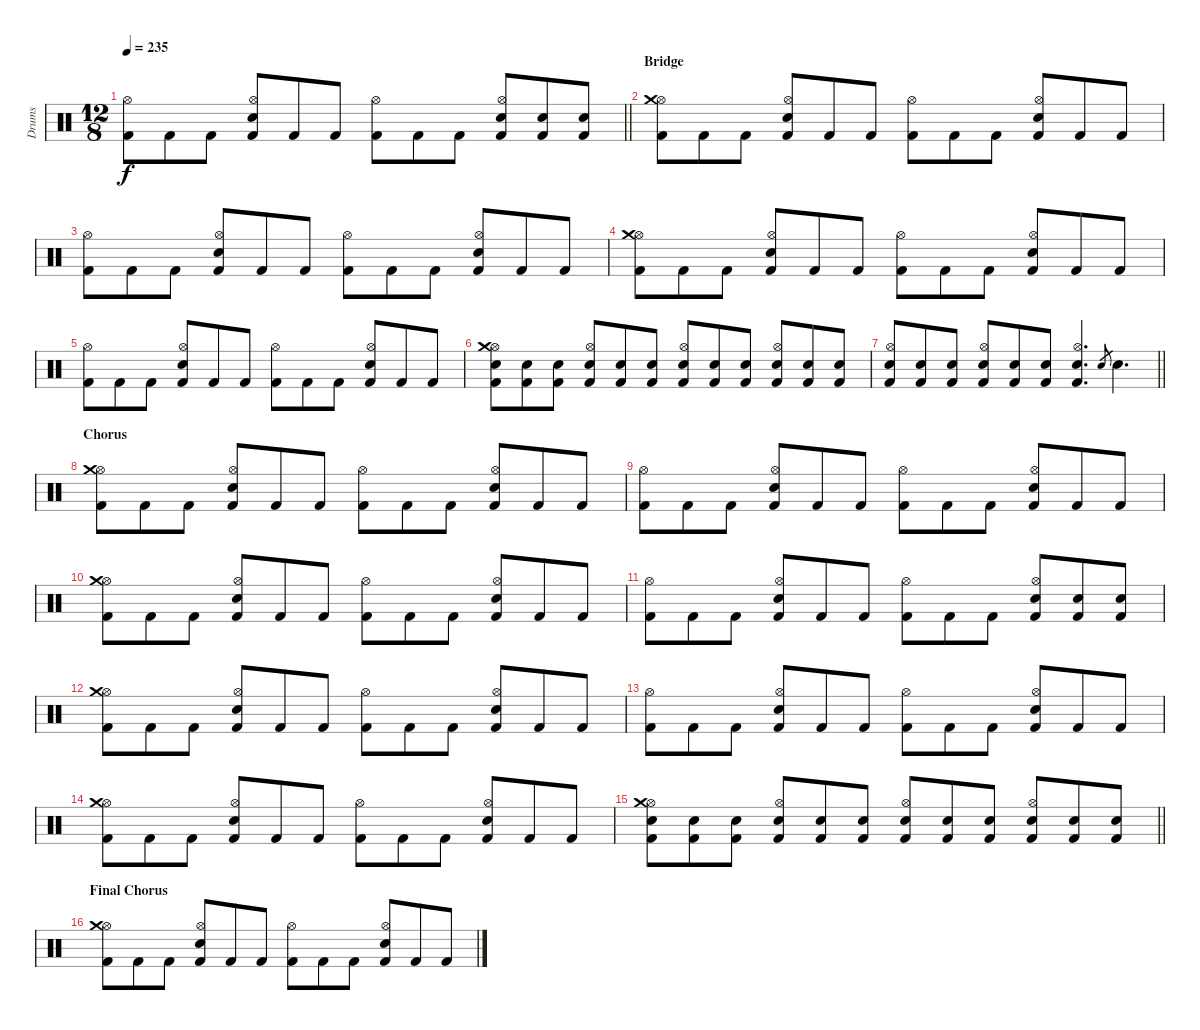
\track ("Drums" "Drums") {instrument percussion}
\staff {score}
\articulation defaults
\ts (12 8)
\tempo 235
\clef neutral
\barLineRight lightlight
\ks c
("Kick (hit) 2" "Hi-Hat (open)").8{dy f} "Kick (hit) 2".8 "Kick (hit) 2".8 ("Hi-Hat (open)" "Kick (hit) 2" "Snare (hit) 2").8 "Kick (hit) 2".8 "Kick (hit) 2".8 ("Kick (hit) 2" "Hi-Hat (open)").8 "Kick (hit) 2".8 "Kick (hit) 2".8 ("Kick (hit) 2" "Hi-Hat (open)" "Snare (hit) 2").8 ("Kick (hit) 2" "Snare (hit) 2").8 ("Kick (hit) 2" "Snare (hit) 2").8 |
\section ("" "Bridge")
("Kick (hit) 2" "Hi-Hat (open)" "Crash medium (hit)").8 "Kick (hit) 2".8 "Kick (hit) 2".8 ("Snare (hit) 2" "Hi-Hat (open)" "Kick (hit) 2").8 "Kick (hit) 2".8 "Kick (hit) 2".8 ("Hi-Hat (open)" "Kick (hit) 2").8 "Kick (hit) 2".8 "Kick (hit) 2".8 ("Kick (hit) 2" "Snare (hit) 2" "Hi-Hat (open)").8 "Kick (hit) 2".8 "Kick (hit) 2".8 |
("Hi-Hat (open)" "Kick (hit) 2").8 "Kick (hit) 2".8 "Kick (hit) 2".8 ("Snare (hit) 2" "Kick (hit) 2" "Hi-Hat (open)").8 "Kick (hit) 2".8 "Kick (hit) 2".8 ("Hi-Hat (open)" "Kick (hit) 2").8 "Kick (hit) 2".8 "Kick (hit) 2".8 ("Hi-Hat (open)" "Kick (hit) 2" "Snare (hit) 2").8 "Kick (hit) 2".8 "Kick (hit) 2".8 |
("Hi-Hat (open)" "Kick (hit) 2" "Crash medium (hit)").8 "Kick (hit) 2".8 "Kick (hit) 2".8 ("Kick (hit) 2" "Snare (hit) 2" "Hi-Hat (open)").8 "Kick (hit) 2".8 "Kick (hit) 2".8 ("Kick (hit) 2" "Hi-Hat (open)").8 "Kick (hit) 2".8 "Kick (hit) 2".8 ("Snare (hit) 2" "Kick (hit) 2" "Hi-Hat (open)").8 "Kick (hit) 2".8 "Kick (hit) 2".8 |
("Kick (hit) 2" "Hi-Hat (open)").8 "Kick (hit) 2".8 "Kick (hit) 2".8 ("Hi-Hat (open)" "Kick (hit) 2" "Snare (hit) 2").8 "Kick (hit) 2".8 "Kick (hit) 2".8 ("Kick (hit) 2" "Hi-Hat (open)").8 "Kick (hit) 2".8 "Kick (hit) 2".8 ("Kick (hit) 2" "Hi-Hat (open)" "Snare (hit) 2").8 "Kick (hit) 2".8 "Kick (hit) 2".8 |
("Kick (hit) 2" "Hi-Hat (open)" "Crash medium (hit)" "Snare (hit) 2").8 ("Kick (hit) 2" "Snare (hit) 2").8 ("Kick (hit) 2" "Snare (hit) 2").8 ("Hi-Hat (open)" "Kick (hit) 2" "Snare (hit) 2").8 ("Kick (hit) 2" "Snare (hit) 2").8 ("Kick (hit) 2" "Snare (hit) 2").8 ("Hi-Hat (open)" "Kick (hit) 2" "Snare (hit) 2").8 ("Kick (hit) 2" "Snare (hit) 2").8 ("Kick (hit) 2" "Snare (hit) 2").8 ("Kick (hit) 2" "Hi-Hat (open)" "Snare (hit) 2").8 ("Kick (hit) 2" "Snare (hit) 2").8 ("Kick (hit) 2" "Snare (hit) 2").8 |
\barLineRight lightlight
("Hi-Hat (open)" "Kick (hit) 2" "Snare (hit) 2").8 ("Kick (hit) 2" "Snare (hit) 2").8 ("Kick (hit) 2" "Snare (hit) 2").8 ("Kick (hit) 2" "Hi-Hat (open)" "Snare (hit) 2").8 ("Kick (hit) 2" "Snare (hit) 2").8 ("Kick (hit) 2" "Snare (hit) 2").8 ("Hi-Hat (open)" "Kick (hit) 2" "Snare (hit) 2").4{d} "Snare (hit) 2".8{gr} "Snare (hit) 2".4{d} |
\section ("" "Chorus")
("Kick (hit) 2" "Hi-Hat (open)" "Crash medium (hit)").8 "Kick (hit) 2".8 "Kick (hit) 2".8 ("Snare (hit) 2" "Hi-Hat (open)" "Kick (hit) 2").8 "Kick (hit) 2".8 "Kick (hit) 2".8 ("Hi-Hat (open)" "Kick (hit) 2").8 "Kick (hit) 2".8 "Kick (hit) 2".8 ("Kick (hit) 2" "Snare (hit) 2" "Hi-Hat (open)").8 "Kick (hit) 2".8 "Kick (hit) 2".8 |
("Hi-Hat (open)" "Kick (hit) 2").8 "Kick (hit) 2".8 "Kick (hit) 2".8 ("Snare (hit) 2" "Kick (hit) 2" "Hi-Hat (open)").8 "Kick (hit) 2".8 "Kick (hit) 2".8 ("Hi-Hat (open)" "Kick (hit) 2").8 "Kick (hit) 2".8 "Kick (hit) 2".8 ("Hi-Hat (open)" "Kick (hit) 2" "Snare (hit) 2").8 "Kick (hit) 2".8 "Kick (hit) 2".8 |
("Hi-Hat (open)" "Kick (hit) 2" "Crash medium (hit)").8 "Kick (hit) 2".8 "Kick (hit) 2".8 ("Kick (hit) 2" "Snare (hit) 2" "Hi-Hat (open)").8 "Kick (hit) 2".8 "Kick (hit) 2".8 ("Kick (hit) 2" "Hi-Hat (open)").8 "Kick (hit) 2".8 "Kick (hit) 2".8 ("Snare (hit) 2" "Kick (hit) 2" "Hi-Hat (open)").8 "Kick (hit) 2".8 "Kick (hit) 2".8 |
("Kick (hit) 2" "Hi-Hat (open)").8 "Kick (hit) 2".8 "Kick (hit) 2".8 ("Hi-Hat (open)" "Kick (hit) 2" "Snare (hit) 2").8 "Kick (hit) 2".8 "Kick (hit) 2".8 ("Kick (hit) 2" "Hi-Hat (open)").8 "Kick (hit) 2".8 "Kick (hit) 2".8 ("Kick (hit) 2" "Hi-Hat (open)" "Snare (hit) 2").8 ("Kick (hit) 2" "Snare (hit) 2").8 ("Kick (hit) 2" "Snare (hit) 2").8 |
("Kick (hit) 2" "Hi-Hat (open)" "Crash medium (hit)").8 "Kick (hit) 2".8 "Kick (hit) 2".8 ("Snare (hit) 2" "Hi-Hat (open)" "Kick (hit) 2").8 "Kick (hit) 2".8 "Kick (hit) 2".8 ("Hi-Hat (open)" "Kick (hit) 2").8 "Kick (hit) 2".8 "Kick (hit) 2".8 ("Kick (hit) 2" "Snare (hit) 2" "Hi-Hat (open)").8 "Kick (hit) 2".8 "Kick (hit) 2".8 |
("Hi-Hat (open)" "Kick (hit) 2").8 "Kick (hit) 2".8 "Kick (hit) 2".8 ("Snare (hit) 2" "Kick (hit) 2" "Hi-Hat (open)").8 "Kick (hit) 2".8 "Kick (hit) 2".8 ("Hi-Hat (open)" "Kick (hit) 2").8 "Kick (hit) 2".8 "Kick (hit) 2".8 ("Hi-Hat (open)" "Kick (hit) 2" "Snare (hit) 2").8 "Kick (hit) 2".8 "Kick (hit) 2".8 |
("Hi-Hat (open)" "Kick (hit) 2" "Crash medium (hit)").8 "Kick (hit) 2".8 "Kick (hit) 2".8 ("Kick (hit) 2" "Snare (hit) 2" "Hi-Hat (open)").8 "Kick (hit) 2".8 "Kick (hit) 2".8 ("Kick (hit) 2" "Hi-Hat (open)").8 "Kick (hit) 2".8 "Kick (hit) 2".8 ("Snare (hit) 2" "Kick (hit) 2" "Hi-Hat (open)").8 "Kick (hit) 2".8 "Kick (hit) 2".8 |
\barLineRight lightlight
("Kick (hit) 2" "Hi-Hat (open)" "Crash medium (hit)" "Snare (hit) 2").8 ("Kick (hit) 2" "Snare (hit) 2").8 ("Kick (hit) 2" "Snare (hit) 2").8 ("Hi-Hat (open)" "Kick (hit) 2" "Snare (hit) 2").8 ("Kick (hit) 2" "Snare (hit) 2").8 ("Kick (hit) 2" "Snare (hit) 2").8 ("Hi-Hat (open)" "Kick (hit) 2" "Snare (hit) 2").8 ("Kick (hit) 2" "Snare (hit) 2").8 ("Kick (hit) 2" "Snare (hit) 2").8 ("Kick (hit) 2" "Hi-Hat (open)" "Snare (hit) 2").8 ("Kick (hit) 2" "Snare (hit) 2").8 ("Kick (hit) 2" "Snare (hit) 2").8 |
\section ("" "Final Chorus")
("Kick (hit) 2" "Hi-Hat (open)" "Crash medium (hit)").8 "Kick (hit) 2".8 "Kick (hit) 2".8 ("Snare (hit) 2" "Hi-Hat (open)" "Kick (hit) 2").8 "Kick (hit) 2".8 "Kick (hit) 2".8 ("Hi-Hat (open)" "Kick (hit) 2").8 "Kick (hit) 2".8 "Kick (hit) 2".8 ("Kick (hit) 2" "Snare (hit) 2" "Hi-Hat (open)").8 "Kick (hit) 2".8 "Kick (hit) 2".8
